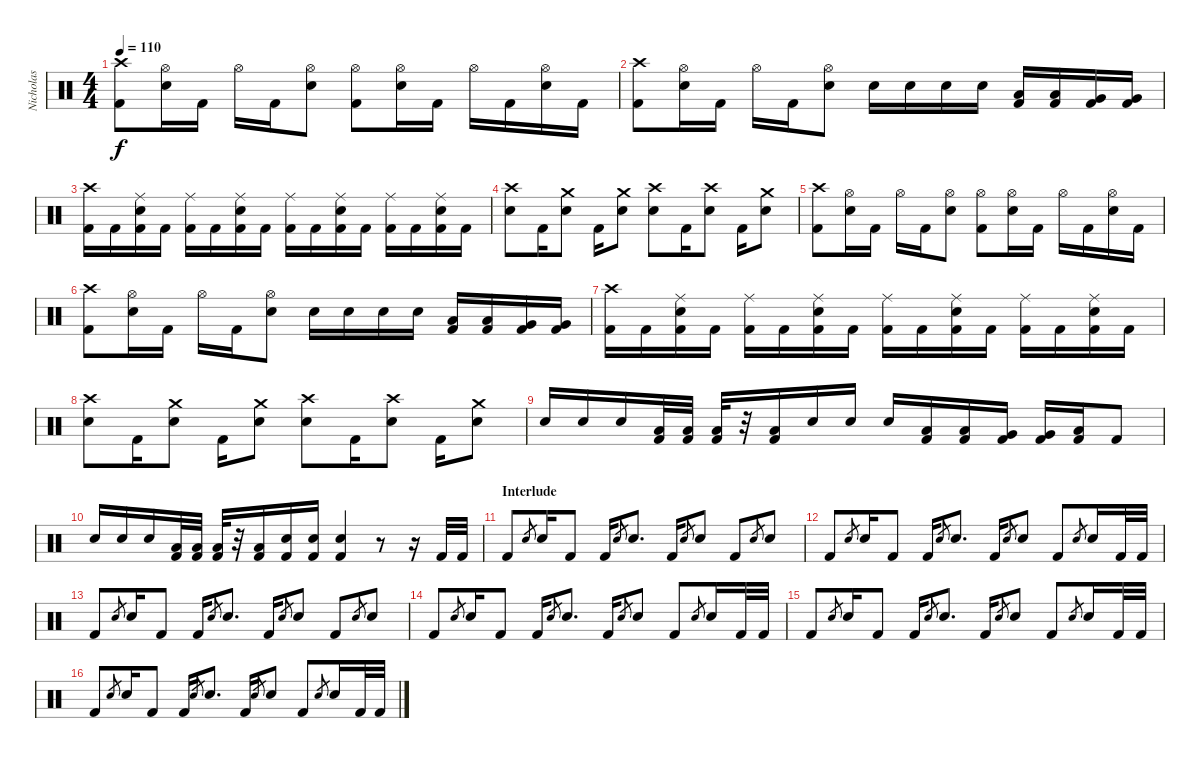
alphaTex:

\track ("Nicholas" "Nicholas") {instrument percussion}
\staff {score}
\articulation defaults
\ts (4 4)
\tempo 110
\clef neutral
\ks c
("Crash high (hit)" "Kick (hit) 2").8{dy f} ("Hi-Hat (open)" "Snare (hit) 2").16 "Kick (hit) 2".16 "Hi-Hat (open)".16 "Kick (hit) 2".16 ("Hi-Hat (open)" "Snare (hit) 2").8 ("Hi-Hat (open)" "Kick (hit) 2").8 ("Hi-Hat (open)" "Snare (hit) 2").16 "Kick (hit) 2".16 "Hi-Hat (open)".16 "Kick (hit) 2".16 ("Hi-Hat (open)" "Snare (hit) 2").16 "Kick (hit) 2".16 |
("Crash high (hit)" "Kick (hit) 2").8 ("Hi-Hat (open)" "Snare (hit) 2").16 "Kick (hit) 2".16 "Hi-Hat (open)".16 "Kick (hit) 2".16 ("Hi-Hat (open)" "Snare (hit) 2").8 "Snare (hit) 2".16 "Snare (hit) 2".16 "Snare (hit) 2".16 "Snare (hit) 2".16 ("Kick (hit) 2" "Low Tom (hit)").16 ("Kick (hit) 2" "Low Tom (hit)").16 ("Kick (hit) 2" "Very Low Tom (hit)").16 ("Kick (hit) 2" "Very Low Tom (hit)").16 |
("Crash high (hit)" "Kick (hit) 2").16 "Kick (hit) 2".16 ("Ride (middle)" "Snare (hit) 2" "Kick (hit) 2").16 "Kick (hit) 2".16 ("Ride (middle)" "Kick (hit) 2").16 "Kick (hit) 2".16 ("Ride (middle)" "Snare (hit) 2" "Kick (hit) 2").16 "Kick (hit) 2".16 ("Ride (middle)" "Kick (hit) 2").16 "Kick (hit) 2".16 ("Ride (middle)" "Snare (hit) 2" "Kick (hit) 2").16 "Kick (hit) 2".16 ("Ride (middle)" "Kick (hit) 2").16 "Kick (hit) 2".16 ("Ride (middle)" "Snare (hit) 2" "Kick (hit) 2").16 "Kick (hit) 2".16 |
("Crash high (hit)" "Snare (hit) 2").8 "Kick (hit) 2".16 ("Crash medium (hit)" "Snare (hit) 2").8 "Kick (hit) 2".16 ("Crash medium (hit)" "Snare (hit) 2").8 ("Crash high (hit)" "Snare (hit) 2").8 "Kick (hit) 2".16 ("Crash high (hit)" "Snare (hit) 2").8 "Kick (hit) 2".16 ("Crash medium (hit)" "Snare (hit) 2").8 |
("Crash high (hit)" "Kick (hit) 2").8 ("Hi-Hat (open)" "Snare (hit) 2").16 "Kick (hit) 2".16 "Hi-Hat (open)".16 "Kick (hit) 2".16 ("Hi-Hat (open)" "Snare (hit) 2").8 ("Hi-Hat (open)" "Kick (hit) 2").8 ("Hi-Hat (open)" "Snare (hit) 2").16 "Kick (hit) 2".16 "Hi-Hat (open)".16 "Kick (hit) 2".16 ("Hi-Hat (open)" "Snare (hit) 2").16 "Kick (hit) 2".16 |
("Crash high (hit)" "Kick (hit) 2").8 ("Hi-Hat (open)" "Snare (hit) 2").16 "Kick (hit) 2".16 "Hi-Hat (open)".16 "Kick (hit) 2".16 ("Hi-Hat (open)" "Snare (hit) 2").8 "Snare (hit) 2".16 "Snare (hit) 2".16 "Snare (hit) 2".16 "Snare (hit) 2".16 ("Kick (hit) 2" "Low Tom (hit)").16 ("Kick (hit) 2" "Low Tom (hit)").16 ("Kick (hit) 2" "Very Low Tom (hit)").16 ("Kick (hit) 2" "Very Low Tom (hit)").16 |
("Crash high (hit)" "Kick (hit) 2").16 "Kick (hit) 2".16 ("Ride (middle)" "Snare (hit) 2" "Kick (hit) 2").16 "Kick (hit) 2".16 ("Ride (middle)" "Kick (hit) 2").16 "Kick (hit) 2".16 ("Ride (middle)" "Snare (hit) 2" "Kick (hit) 2").16 "Kick (hit) 2".16 ("Ride (middle)" "Kick (hit) 2").16 "Kick (hit) 2".16 ("Ride (middle)" "Snare (hit) 2" "Kick (hit) 2").16 "Kick (hit) 2".16 ("Ride (middle)" "Kick (hit) 2").16 "Kick (hit) 2".16 ("Ride (middle)" "Snare (hit) 2" "Kick (hit) 2").16 "Kick (hit) 2".16 |
("Crash high (hit)" "Snare (hit) 2").8 "Kick (hit) 2".16 ("Crash medium (hit)" "Snare (hit) 2").8 "Kick (hit) 2".16 ("Crash medium (hit)" "Snare (hit) 2").8 ("Crash high (hit)" "Snare (hit) 2").8 "Kick (hit) 2".16 ("Crash high (hit)" "Snare (hit) 2").8 "Kick (hit) 2".16 ("Crash medium (hit)" "Snare (hit) 2").8 |
"Snare (hit) 2".16 "Snare (hit) 2".16 "Snare (hit) 2".16 ("Kick (hit) 2" "Low Tom (hit)").32 ("Kick (hit) 2" "Low Tom (hit)").32 ("Kick (hit) 2" "Low Tom (hit)").32 r.32 ("Kick (hit) 2" "Low Tom (hit)").16 "Snare (hit) 2".16 "Snare (hit) 2".16 "Snare (hit) 2".16 ("Kick (hit) 2" "Low Tom (hit)").16 ("Kick (hit) 2" "Low Tom (hit)").16 ("Kick (hit) 2" "Very Low Tom (hit)").16 ("Kick (hit) 2" "Very Low Tom (hit)").16 ("Kick (hit) 2" "Low Floor Tom (hit)").16 "Kick (hit) 2".8 |
"Snare (hit) 2".16 "Snare (hit) 2".16 "Snare (hit) 2".16 ("Kick (hit) 2" "Low Tom (hit)").32 ("Kick (hit) 2" "Low Tom (hit)").32 ("Kick (hit) 2" "Low Tom (hit)").32 r.32 ("Kick (hit) 2" "Low Tom (hit)").16 ("Kick (hit) 2" "Snare (hit) 2").16 ("Kick (hit) 2" "Snare (hit) 2").16 ("Kick (hit) 2" "Snare (hit) 2").4 r.8 r.16 "Kick (hit) 2".32 "Kick (hit) 2".32 |
\section ("" "Interlude")
"Kick (hit) 2".8 "Snare (hit) 2".8{gr} "Snare (hit) 2".16 "Kick (hit) 2".8 "Kick (hit) 2".16 "Snare (hit) 2".8{gr} "Snare (hit) 2".8{d} "Kick (hit) 2".16 "Snare (hit) 2".8{gr} "Snare (hit) 2".8 "Kick (hit) 2".8 "Snare (hit) 2".8{gr} "Snare (hit) 2".8 |
"Kick (hit) 2".8 "Snare (hit) 2".8{gr} "Snare (hit) 2".16 "Kick (hit) 2".8 "Kick (hit) 2".16 "Snare (hit) 2".8{gr} "Snare (hit) 2".8{d} "Kick (hit) 2".16 "Snare (hit) 2".8{gr} "Snare (hit) 2".8 "Kick (hit) 2".8 "Snare (hit) 2".8{gr} "Snare (hit) 2".16 "Kick (hit) 2".32 "Kick (hit) 2".32 |
"Kick (hit) 2".8 "Snare (hit) 2".8{gr} "Snare (hit) 2".16 "Kick (hit) 2".8 "Kick (hit) 2".16 "Snare (hit) 2".8{gr} "Snare (hit) 2".8{d} "Kick (hit) 2".16 "Snare (hit) 2".8{gr} "Snare (hit) 2".8 "Kick (hit) 2".8 "Snare (hit) 2".8{gr} "Snare (hit) 2".8 |
"Kick (hit) 2".8 "Snare (hit) 2".8{gr} "Snare (hit) 2".16 "Kick (hit) 2".8 "Kick (hit) 2".16 "Snare (hit) 2".8{gr} "Snare (hit) 2".8{d} "Kick (hit) 2".16 "Snare (hit) 2".8{gr} "Snare (hit) 2".8 "Kick (hit) 2".8 "Snare (hit) 2".8{gr} "Snare (hit) 2".16 "Kick (hit) 2".32 "Kick (hit) 2".32 |
"Kick (hit) 2".8 "Snare (hit) 2".8{gr} "Snare (hit) 2".16 "Kick (hit) 2".8 "Kick (hit) 2".16 "Snare (hit) 2".8{gr} "Snare (hit) 2".8{d} "Kick (hit) 2".16 "Snare (hit) 2".8{gr} "Snare (hit) 2".8 "Kick (hit) 2".8 "Snare (hit) 2".8{gr} "Snare (hit) 2".16 "Kick (hit) 2".32 "Kick (hit) 2".32 |
"Kick (hit) 2".8 "Snare (hit) 2".8{gr} "Snare (hit) 2".16 "Kick (hit) 2".8 "Kick (hit) 2".16 "Snare (hit) 2".8{gr} "Snare (hit) 2".8{d} "Kick (hit) 2".16 "Snare (hit) 2".8{gr} "Snare (hit) 2".8 "Kick (hit) 2".8 "Snare (hit) 2".8{gr} "Snare (hit) 2".16 "Kick (hit) 2".32 "Kick (hit) 2".32
